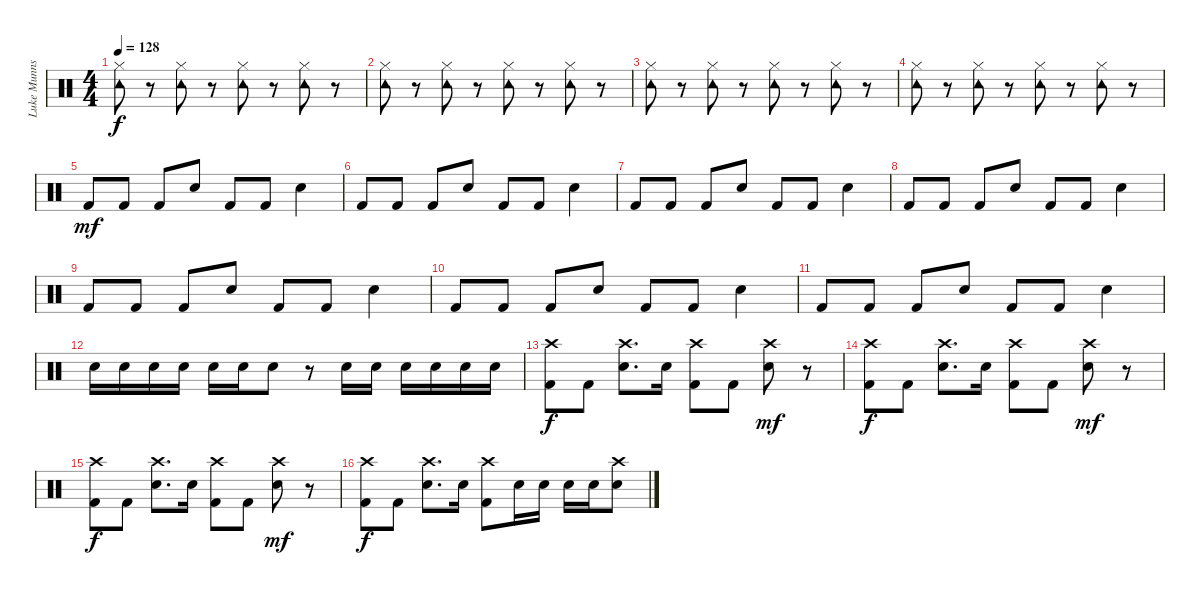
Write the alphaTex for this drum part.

\track ("Luke Munns" "Luke Munns") {instrument percussion}
\staff {score}
\articulation defaults
\ts (4 4)
\tempo 128
\clef neutral
\ks c
("Hi-Hat (closed)" "Tambourine (hit)").8{dy f} r.8 ("Hi-Hat (closed)" "Tambourine (hit)").8 r.8 ("Hi-Hat (closed)" "Tambourine (hit)").8 r.8 ("Hi-Hat (closed)" "Tambourine (hit)").8 r.8 |
("Hi-Hat (closed)" "Tambourine (hit)").8 r.8 ("Hi-Hat (closed)" "Tambourine (hit)").8 r.8 ("Hi-Hat (closed)" "Tambourine (hit)").8 r.8 ("Hi-Hat (closed)" "Tambourine (hit)").8 r.8 |
("Hi-Hat (closed)" "Tambourine (hit)").8 r.8 ("Hi-Hat (closed)" "Tambourine (hit)").8 r.8 ("Hi-Hat (closed)" "Tambourine (hit)").8 r.8 ("Hi-Hat (closed)" "Tambourine (hit)").8 r.8 |
("Hi-Hat (closed)" "Tambourine (hit)").8 r.8 ("Hi-Hat (closed)" "Tambourine (hit)").8 r.8 ("Hi-Hat (closed)" "Tambourine (hit)").8 r.8 ("Hi-Hat (closed)" "Tambourine (hit)").8 r.8 |
"Kick (hit) 2".8{dy mf} "Kick (hit) 2".8 "Kick (hit) 2".8 "Electric Snare (hit)".8 "Kick (hit) 2".8 "Kick (hit) 2".8 "Electric Snare (hit)".4 |
"Kick (hit) 2".8 "Kick (hit) 2".8 "Kick (hit) 2".8 "Electric Snare (hit)".8 "Kick (hit) 2".8 "Kick (hit) 2".8 "Electric Snare (hit)".4 |
"Kick (hit) 2".8 "Kick (hit) 2".8 "Kick (hit) 2".8 "Electric Snare (hit)".8 "Kick (hit) 2".8 "Kick (hit) 2".8 "Electric Snare (hit)".4 |
"Kick (hit) 2".8 "Kick (hit) 2".8 "Kick (hit) 2".8 "Electric Snare (hit)".8 "Kick (hit) 2".8 "Kick (hit) 2".8 "Electric Snare (hit)".4 |
"Kick (hit) 2".8 "Kick (hit) 2".8 "Kick (hit) 2".8 "Electric Snare (hit)".8 "Kick (hit) 2".8 "Kick (hit) 2".8 "Electric Snare (hit)".4 |
"Kick (hit) 2".8 "Kick (hit) 2".8 "Kick (hit) 2".8 "Electric Snare (hit)".8 "Kick (hit) 2".8 "Kick (hit) 2".8 "Electric Snare (hit)".4 |
"Kick (hit) 2".8 "Kick (hit) 2".8 "Kick (hit) 2".8 "Electric Snare (hit)".8 "Kick (hit) 2".8 "Kick (hit) 2".8 "Electric Snare (hit)".4 |
"Electric Snare (hit)".16 "Electric Snare (hit)".16 "Electric Snare (hit)".16 "Electric Snare (hit)".16 "Electric Snare (hit)".16 "Electric Snare (hit)".16 "Electric Snare (hit)".8 r.8 "Electric Snare (hit)".16 "Electric Snare (hit)".16 "Electric Snare (hit)".16 "Electric Snare (hit)".16 "Electric Snare (hit)".16 "Electric Snare (hit)".16 |
("Kick (hit) 2" "Crash high (hit)").8{dy f} "Kick (hit) 2".8 ("Electric Snare (hit)" "Crash high (hit)").8{d} "Electric Snare (hit)".16 ("Kick (hit) 2" "Crash high (hit)").8 "Kick (hit) 2".8 ("Electric Snare (hit)" "Crash high (hit)").8{dy mf} r.8 |
("Kick (hit) 2" "Crash high (hit)").8{dy f} "Kick (hit) 2".8 ("Electric Snare (hit)" "Crash high (hit)").8{d} "Electric Snare (hit)".16 ("Kick (hit) 2" "Crash high (hit)").8 "Kick (hit) 2".8 ("Electric Snare (hit)" "Crash high (hit)").8{dy mf} r.8 |
("Kick (hit) 2" "Crash high (hit)").8{dy f} "Kick (hit) 2".8 ("Electric Snare (hit)" "Crash high (hit)").8{d} "Electric Snare (hit)".16 ("Kick (hit) 2" "Crash high (hit)").8 "Kick (hit) 2".8 ("Electric Snare (hit)" "Crash high (hit)").8{dy mf} r.8 |
("Kick (hit) 2" "Crash high (hit)").8{dy f} "Kick (hit) 2".8 ("Electric Snare (hit)" "Crash high (hit)").8{d} "Electric Snare (hit)".16 ("Kick (hit) 2" "Crash high (hit)").8 "Electric Snare (hit)".16 "Electric Snare (hit)".16 "Electric Snare (hit)".16 "Electric Snare (hit)".16 ("Electric Snare (hit)" "Crash high (hit)").8
